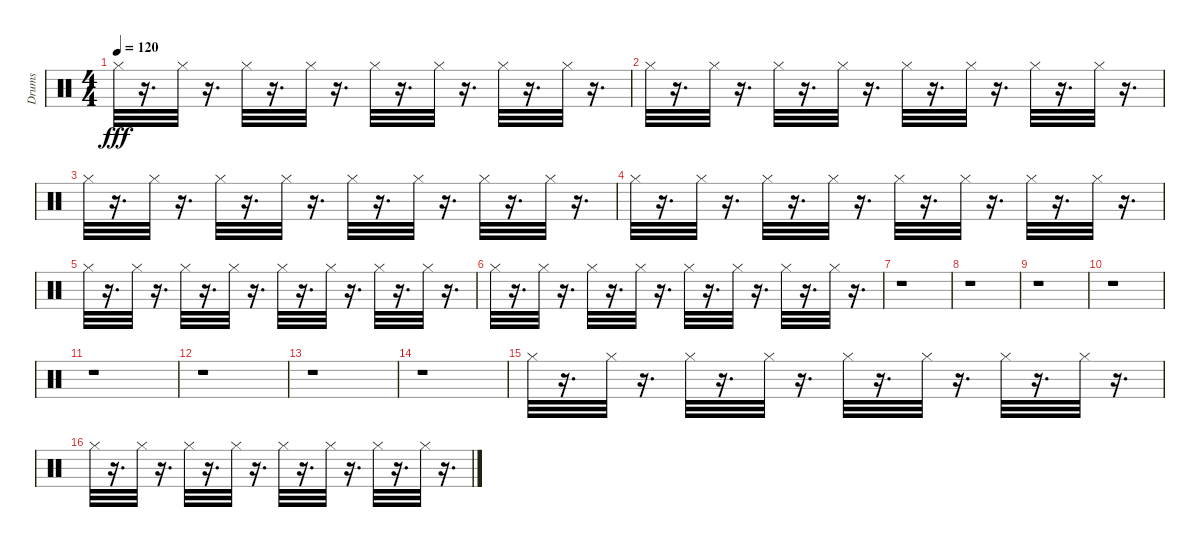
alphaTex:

\track ("Drums" "Drums") {instrument percussion}
\staff {score}
\articulation defaults
\ts (4 4)
\tempo 120
\clef neutral
\ks c "Hi-Hat (closed)".32{dy fff}
r.16{d} "Hi-Hat (closed)".32 r.16{d} "Hi-Hat (closed)".32 r.16{d} "Hi-Hat (closed)".32 r.16{d} "Hi-Hat (closed)".32 r.16{d} "Hi-Hat (closed)".32 r.16{d} "Hi-Hat (closed)".32 r.16{d} "Hi-Hat (closed)".32 r.16{d} |
"Hi-Hat (closed)".32 r.16{d} "Hi-Hat (closed)".32 r.16{d} "Hi-Hat (closed)".32 r.16{d} "Hi-Hat (closed)".32 r.16{d} "Hi-Hat (closed)".32 r.16{d} "Hi-Hat (closed)".32 r.16{d} "Hi-Hat (closed)".32 r.16{d} "Hi-Hat (closed)".32 r.16{d} |
"Hi-Hat (closed)".32 r.16{d} "Hi-Hat (closed)".32 r.16{d} "Hi-Hat (closed)".32 r.16{d} "Hi-Hat (closed)".32 r.16{d} "Hi-Hat (closed)".32 r.16{d} "Hi-Hat (closed)".32 r.16{d} "Hi-Hat (closed)".32 r.16{d} "Hi-Hat (closed)".32 r.16{d} |
"Hi-Hat (closed)".32 r.16{d} "Hi-Hat (closed)".32 r.16{d} "Hi-Hat (closed)".32 r.16{d} "Hi-Hat (closed)".32 r.16{d} "Hi-Hat (closed)".32 r.16{d} "Hi-Hat (closed)".32 r.16{d} "Hi-Hat (closed)".32 r.16{d} "Hi-Hat (closed)".32 r.16{d} |
"Hi-Hat (closed)".32 r.16{d} "Hi-Hat (closed)".32 r.16{d} "Hi-Hat (closed)".32 r.16{d} "Hi-Hat (closed)".32 r.16{d} "Hi-Hat (closed)".32 r.16{d} "Hi-Hat (closed)".32 r.16{d} "Hi-Hat (closed)".32 r.16{d} "Hi-Hat (closed)".32 r.16{d} |
"Hi-Hat (closed)".32 r.16{d} "Hi-Hat (closed)".32 r.16{d} "Hi-Hat (closed)".32 r.16{d} "Hi-Hat (closed)".32 r.16{d} "Hi-Hat (closed)".32 r.16{d} "Hi-Hat (closed)".32 r.16{d} "Hi-Hat (closed)".32 r.16{d} "Hi-Hat (closed)".32 r.16{d} |
r.1 |
r.1 |
r.1 |
r.1 |
r.1 |
r.1 |
r.1 |
r.1 |
"Hi-Hat (closed)".32 r.16{d} "Hi-Hat (closed)".32 r.16{d} "Hi-Hat (closed)".32 r.16{d} "Hi-Hat (closed)".32 r.16{d} "Hi-Hat (closed)".32 r.16{d} "Hi-Hat (closed)".32 r.16{d} "Hi-Hat (closed)".32 r.16{d} "Hi-Hat (closed)".32 r.16{d} |
"Hi-Hat (closed)".32 r.16{d} "Hi-Hat (closed)".32 r.16{d} "Hi-Hat (closed)".32 r.16{d} "Hi-Hat (closed)".32 r.16{d} "Hi-Hat (closed)".32 r.16{d} "Hi-Hat (closed)".32 r.16{d} "Hi-Hat (closed)".32 r.16{d} "Hi-Hat (closed)".32 r.16{d}
